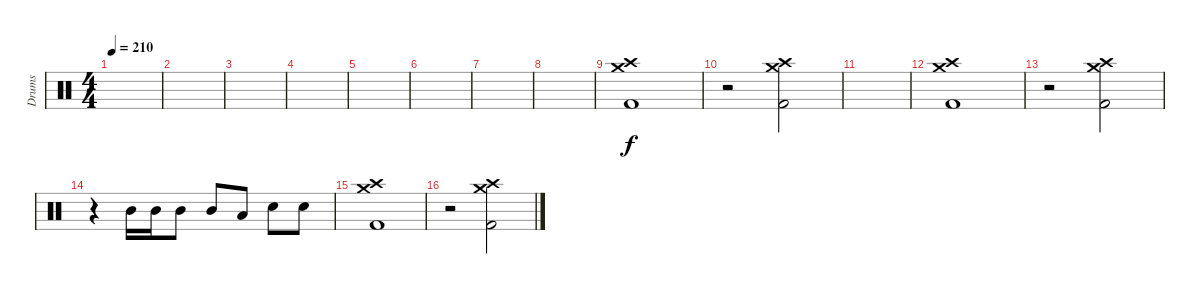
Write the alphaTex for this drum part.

\track ("Drums" "Drums") {instrument percussion}
\staff {score}
\articulation defaults
\ts (4 4)
\tempo 210
\clef neutral
\ks c
|
|
|
|
|
|
|
|
("Crash medium (hit)" "Crash high (hit)" "Kick (hit) 2").1 |
r.2 ("Crash medium (hit)" "Crash high (hit)" "Kick (hit) 2").2 |
|
("Crash medium (hit)" "Crash high (hit)" "Kick (hit) 2").1 |
r.2 ("Crash medium (hit)" "Crash high (hit)" "Kick (hit) 2").2 |
r.4 "Mid Tom (hit)".16 "Mid Tom (hit)".16 "Mid Tom (hit)".8 "Mid Tom (hit)".8 "Low Tom (hit)".8 "Snare (hit) 2".8 "Snare (hit) 2".8 |
("Crash medium (hit)" "Crash high (hit)" "Kick (hit) 2").1 |
r.2 ("Crash medium (hit)" "Crash high (hit)" "Kick (hit) 2").2
